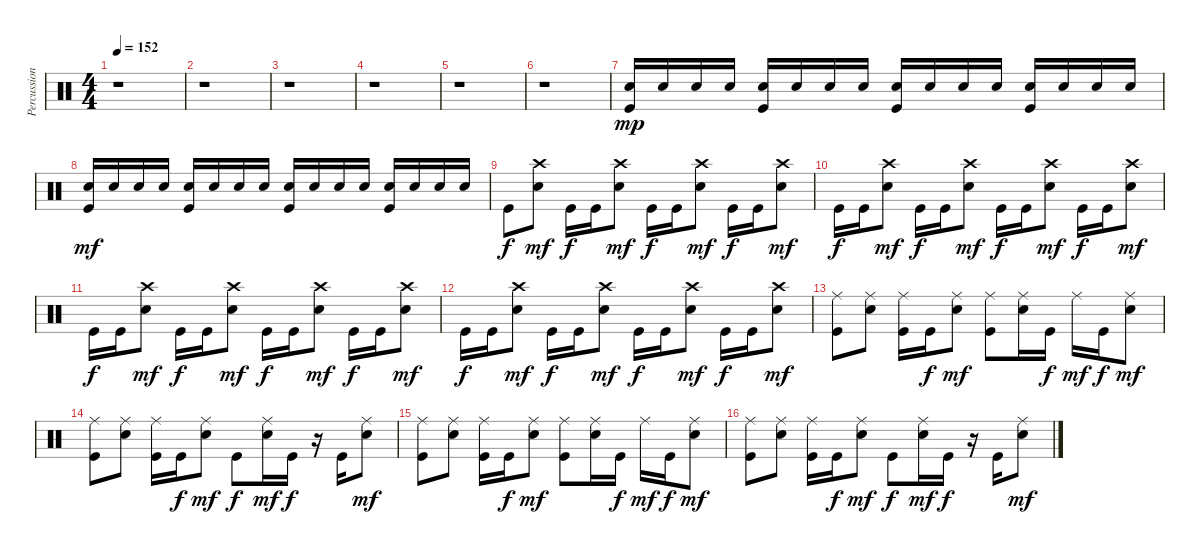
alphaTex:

\track ("Percussion" "Percussion") {instrument percussion}
\staff {score}
\articulation defaults
\ts (4 4)
\tempo 152
\clef neutral
\ks c
r.1{dy mp} |
r.1 |
r.1 |
r.1 |
r.1 |
r.1 |
("Electric Snare (hit)" "Kick (hit)").16 "Electric Snare (hit)".16 "Electric Snare (hit)".16 "Electric Snare (hit)".16 ("Electric Snare (hit)" "Kick (hit)").16 "Electric Snare (hit)".16 "Electric Snare (hit)".16 "Electric Snare (hit)".16 ("Electric Snare (hit)" "Kick (hit)").16 "Electric Snare (hit)".16 "Electric Snare (hit)".16 "Electric Snare (hit)".16 ("Electric Snare (hit)" "Kick (hit)").16 "Electric Snare (hit)".16 "Electric Snare (hit)".16 "Electric Snare (hit)".16 |
("Electric Snare (hit)" "Kick (hit)").16{dy mf} "Electric Snare (hit)".16 "Electric Snare (hit)".16 "Electric Snare (hit)".16 ("Electric Snare (hit)" "Kick (hit)").16 "Electric Snare (hit)".16 "Electric Snare (hit)".16 "Electric Snare (hit)".16 ("Electric Snare (hit)" "Kick (hit)").16 "Electric Snare (hit)".16 "Electric Snare (hit)".16 "Electric Snare (hit)".16 ("Electric Snare (hit)" "Kick (hit)").16 "Electric Snare (hit)".16 "Electric Snare (hit)".16 "Electric Snare (hit)".16 |
"Kick (hit)".8{dy f} ("Crash high (hit)" "Electric Snare (hit)").8{dy mf} "Kick (hit)".16{dy f} "Kick (hit)".16 ("Crash high (hit)" "Electric Snare (hit)").8{dy mf} "Kick (hit)".16{dy f} "Kick (hit)".16 ("Crash high (hit)" "Electric Snare (hit)").8{dy mf} "Kick (hit)".16{dy f} "Kick (hit)".16 ("Crash high (hit)" "Electric Snare (hit)").8{dy mf} |
"Kick (hit)".16{dy f} "Kick (hit)".16 ("Crash high (hit)" "Electric Snare (hit)").8{dy mf} "Kick (hit)".16{dy f} "Kick (hit)".16 ("Crash high (hit)" "Electric Snare (hit)").8{dy mf} "Kick (hit)".16{dy f} "Kick (hit)".16 ("Crash high (hit)" "Electric Snare (hit)").8{dy mf} "Kick (hit)".16{dy f} "Kick (hit)".16 ("Crash high (hit)" "Electric Snare (hit)").8{dy mf} |
"Kick (hit)".16{dy f} "Kick (hit)".16 ("Crash high (hit)" "Electric Snare (hit)").8{dy mf} "Kick (hit)".16{dy f} "Kick (hit)".16 ("Crash high (hit)" "Electric Snare (hit)").8{dy mf} "Kick (hit)".16{dy f} "Kick (hit)".16 ("Crash high (hit)" "Electric Snare (hit)").8{dy mf} "Kick (hit)".16{dy f} "Kick (hit)".16 ("Crash high (hit)" "Electric Snare (hit)").8{dy mf} |
"Kick (hit)".16{dy f} "Kick (hit)".16 ("Crash high (hit)" "Electric Snare (hit)").8{dy mf} "Kick (hit)".16{dy f} "Kick (hit)".16 ("Crash high (hit)" "Electric Snare (hit)").8{dy mf} "Kick (hit)".16{dy f} "Kick (hit)".16 ("Crash high (hit)" "Electric Snare (hit)").8{dy mf} "Kick (hit)".16{dy f} "Kick (hit)".16 ("Crash high (hit)" "Electric Snare (hit)").8{dy mf} |
("Ride (middle)" "Kick (hit)").8 ("Ride (middle)" "Electric Snare (hit)").8 ("Ride (middle)" "Kick (hit)").16 "Kick (hit)".16{dy f} ("Ride (middle)" "Electric Snare (hit)").8{dy mf} ("Ride (middle)" "Kick (hit)").8 ("Ride (middle)" "Electric Snare (hit)").16 "Kick (hit)".16{dy f} "Ride (middle)".16{dy mf} "Kick (hit)".16{dy f} ("Ride (middle)" "Electric Snare (hit)").8{dy mf} |
("Ride (middle)" "Kick (hit)").8 ("Ride (middle)" "Electric Snare (hit)").8 ("Ride (middle)" "Kick (hit)").16 "Kick (hit)".16{dy f} ("Ride (middle)" "Electric Snare (hit)").8{dy mf} "Kick (hit)".8{dy f} ("Ride (middle)" "Electric Snare (hit)").16{dy mf} "Kick (hit)".16{dy f} r.16 "Kick (hit)".16 ("Ride (middle)" "Electric Snare (hit)").8{dy mf} |
("Ride (middle)" "Kick (hit)").8 ("Ride (middle)" "Electric Snare (hit)").8 ("Ride (middle)" "Kick (hit)").16 "Kick (hit)".16{dy f} ("Ride (middle)" "Electric Snare (hit)").8{dy mf} ("Ride (middle)" "Kick (hit)").8 ("Ride (middle)" "Electric Snare (hit)").16 "Kick (hit)".16{dy f} "Ride (middle)".16{dy mf} "Kick (hit)".16{dy f} ("Ride (middle)" "Electric Snare (hit)").8{dy mf} |
("Ride (middle)" "Kick (hit)").8 ("Ride (middle)" "Electric Snare (hit)").8 ("Ride (middle)" "Kick (hit)").16 "Kick (hit)".16{dy f} ("Ride (middle)" "Electric Snare (hit)").8{dy mf} "Kick (hit)".8{dy f} ("Ride (middle)" "Electric Snare (hit)").16{dy mf} "Kick (hit)".16{dy f} r.16 "Kick (hit)".16 ("Ride (middle)" "Electric Snare (hit)").8{dy mf}
